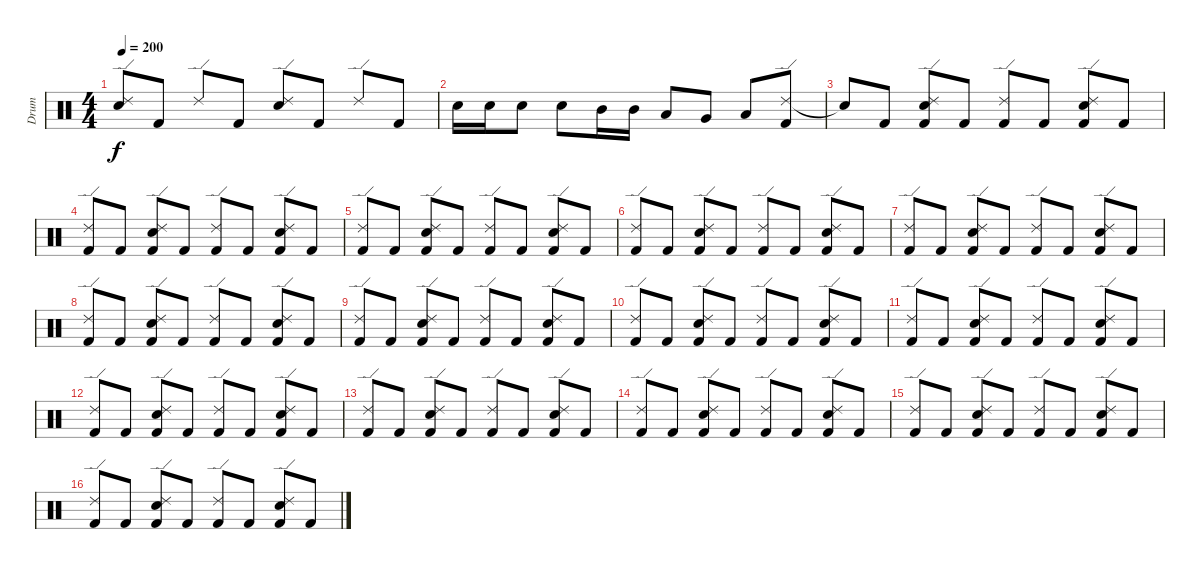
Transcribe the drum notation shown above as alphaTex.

\track ("Drum" "Drum") {instrument percussion}
\staff {score}
\articulation defaults
\ts (4 4)
\tempo 200
\clef neutral
\ks c
("Ride (edge) 2" "Electric Snare (hit)").8{dy f} "Kick (hit) 2".8 "Ride (edge) 2".8 "Kick (hit) 2".8 ("Ride (edge) 2" "Electric Snare (hit)").8 "Kick (hit) 2".8 "Ride (edge) 2".8 "Kick (hit) 2".8 |
"Electric Snare (hit)".16 "Electric Snare (hit)".16 "Electric Snare (hit)".8 "Electric Snare (hit)".8 "Mid Tom (hit)".16 "Mid Tom (hit)".16 "Low Tom (hit)".8 "Very Low Tom (hit)".8 "Low Floor Tom (hit)".8 ("Ride (edge) 2" "Kick (hit) 2").8 |
"Snare (hit)"{t}.8 "Kick (hit) 2".8 ("Ride (edge) 2" "Electric Snare (hit)" "Kick (hit) 2").8 "Kick (hit) 2".8 ("Ride (edge) 2" "Kick (hit) 2").8 "Kick (hit) 2".8 ("Ride (edge) 2" "Electric Snare (hit)" "Kick (hit) 2").8 "Kick (hit) 2".8 |
("Ride (edge) 2" "Kick (hit) 2").8 "Kick (hit) 2".8 ("Ride (edge) 2" "Electric Snare (hit)" "Kick (hit) 2").8 "Kick (hit) 2".8 ("Ride (edge) 2" "Kick (hit) 2").8 "Kick (hit) 2".8 ("Ride (edge) 2" "Electric Snare (hit)" "Kick (hit) 2").8 "Kick (hit) 2".8 |
("Ride (edge) 2" "Kick (hit) 2").8 "Kick (hit) 2".8 ("Ride (edge) 2" "Electric Snare (hit)" "Kick (hit) 2").8 "Kick (hit) 2".8 ("Ride (edge) 2" "Kick (hit) 2").8 "Kick (hit) 2".8 ("Ride (edge) 2" "Electric Snare (hit)" "Kick (hit) 2").8 "Kick (hit) 2".8 |
("Ride (edge) 2" "Kick (hit) 2").8 "Kick (hit) 2".8 ("Ride (edge) 2" "Electric Snare (hit)" "Kick (hit) 2").8 "Kick (hit) 2".8 ("Ride (edge) 2" "Kick (hit) 2").8 "Kick (hit) 2".8 ("Ride (edge) 2" "Electric Snare (hit)" "Kick (hit) 2").8 "Kick (hit) 2".8 |
("Ride (edge) 2" "Kick (hit) 2").8 "Kick (hit) 2".8 ("Ride (edge) 2" "Electric Snare (hit)" "Kick (hit) 2").8 "Kick (hit) 2".8 ("Ride (edge) 2" "Kick (hit) 2").8 "Kick (hit) 2".8 ("Ride (edge) 2" "Electric Snare (hit)" "Kick (hit) 2").8 "Kick (hit) 2".8 |
("Ride (edge) 2" "Kick (hit) 2").8 "Kick (hit) 2".8 ("Ride (edge) 2" "Electric Snare (hit)" "Kick (hit) 2").8 "Kick (hit) 2".8 ("Ride (edge) 2" "Kick (hit) 2").8 "Kick (hit) 2".8 ("Ride (edge) 2" "Electric Snare (hit)" "Kick (hit) 2").8 "Kick (hit) 2".8 |
("Ride (edge) 2" "Kick (hit) 2").8 "Kick (hit) 2".8 ("Ride (edge) 2" "Electric Snare (hit)" "Kick (hit) 2").8 "Kick (hit) 2".8 ("Ride (edge) 2" "Kick (hit) 2").8 "Kick (hit) 2".8 ("Ride (edge) 2" "Electric Snare (hit)" "Kick (hit) 2").8 "Kick (hit) 2".8 |
("Ride (edge) 2" "Kick (hit) 2").8 "Kick (hit) 2".8 ("Ride (edge) 2" "Electric Snare (hit)" "Kick (hit) 2").8 "Kick (hit) 2".8 ("Ride (edge) 2" "Kick (hit) 2").8 "Kick (hit) 2".8 ("Ride (edge) 2" "Electric Snare (hit)" "Kick (hit) 2").8 "Kick (hit) 2".8 |
("Ride (edge) 2" "Kick (hit) 2").8 "Kick (hit) 2".8 ("Ride (edge) 2" "Electric Snare (hit)" "Kick (hit) 2").8 "Kick (hit) 2".8 ("Ride (edge) 2" "Kick (hit) 2").8 "Kick (hit) 2".8 ("Ride (edge) 2" "Electric Snare (hit)" "Kick (hit) 2").8 "Kick (hit) 2".8 |
("Ride (edge) 2" "Kick (hit) 2").8 "Kick (hit) 2".8 ("Ride (edge) 2" "Electric Snare (hit)" "Kick (hit) 2").8 "Kick (hit) 2".8 ("Ride (edge) 2" "Kick (hit) 2").8 "Kick (hit) 2".8 ("Ride (edge) 2" "Electric Snare (hit)" "Kick (hit) 2").8 "Kick (hit) 2".8 |
("Ride (edge) 2" "Kick (hit) 2").8 "Kick (hit) 2".8 ("Ride (edge) 2" "Electric Snare (hit)" "Kick (hit) 2").8 "Kick (hit) 2".8 ("Ride (edge) 2" "Kick (hit) 2").8 "Kick (hit) 2".8 ("Ride (edge) 2" "Electric Snare (hit)" "Kick (hit) 2").8 "Kick (hit) 2".8 |
("Ride (edge) 2" "Kick (hit) 2").8 "Kick (hit) 2".8 ("Ride (edge) 2" "Electric Snare (hit)" "Kick (hit) 2").8 "Kick (hit) 2".8 ("Ride (edge) 2" "Kick (hit) 2").8 "Kick (hit) 2".8 ("Ride (edge) 2" "Electric Snare (hit)" "Kick (hit) 2").8 "Kick (hit) 2".8 |
("Ride (edge) 2" "Kick (hit) 2").8 "Kick (hit) 2".8 ("Ride (edge) 2" "Electric Snare (hit)" "Kick (hit) 2").8 "Kick (hit) 2".8 ("Ride (edge) 2" "Kick (hit) 2").8 "Kick (hit) 2".8 ("Ride (edge) 2" "Electric Snare (hit)" "Kick (hit) 2").8 "Kick (hit) 2".8 |
("Ride (edge) 2" "Kick (hit) 2").8 "Kick (hit) 2".8 ("Ride (edge) 2" "Electric Snare (hit)" "Kick (hit) 2").8 "Kick (hit) 2".8 ("Ride (edge) 2" "Kick (hit) 2").8 "Kick (hit) 2".8 ("Ride (edge) 2" "Electric Snare (hit)" "Kick (hit) 2").8 "Kick (hit) 2".8
